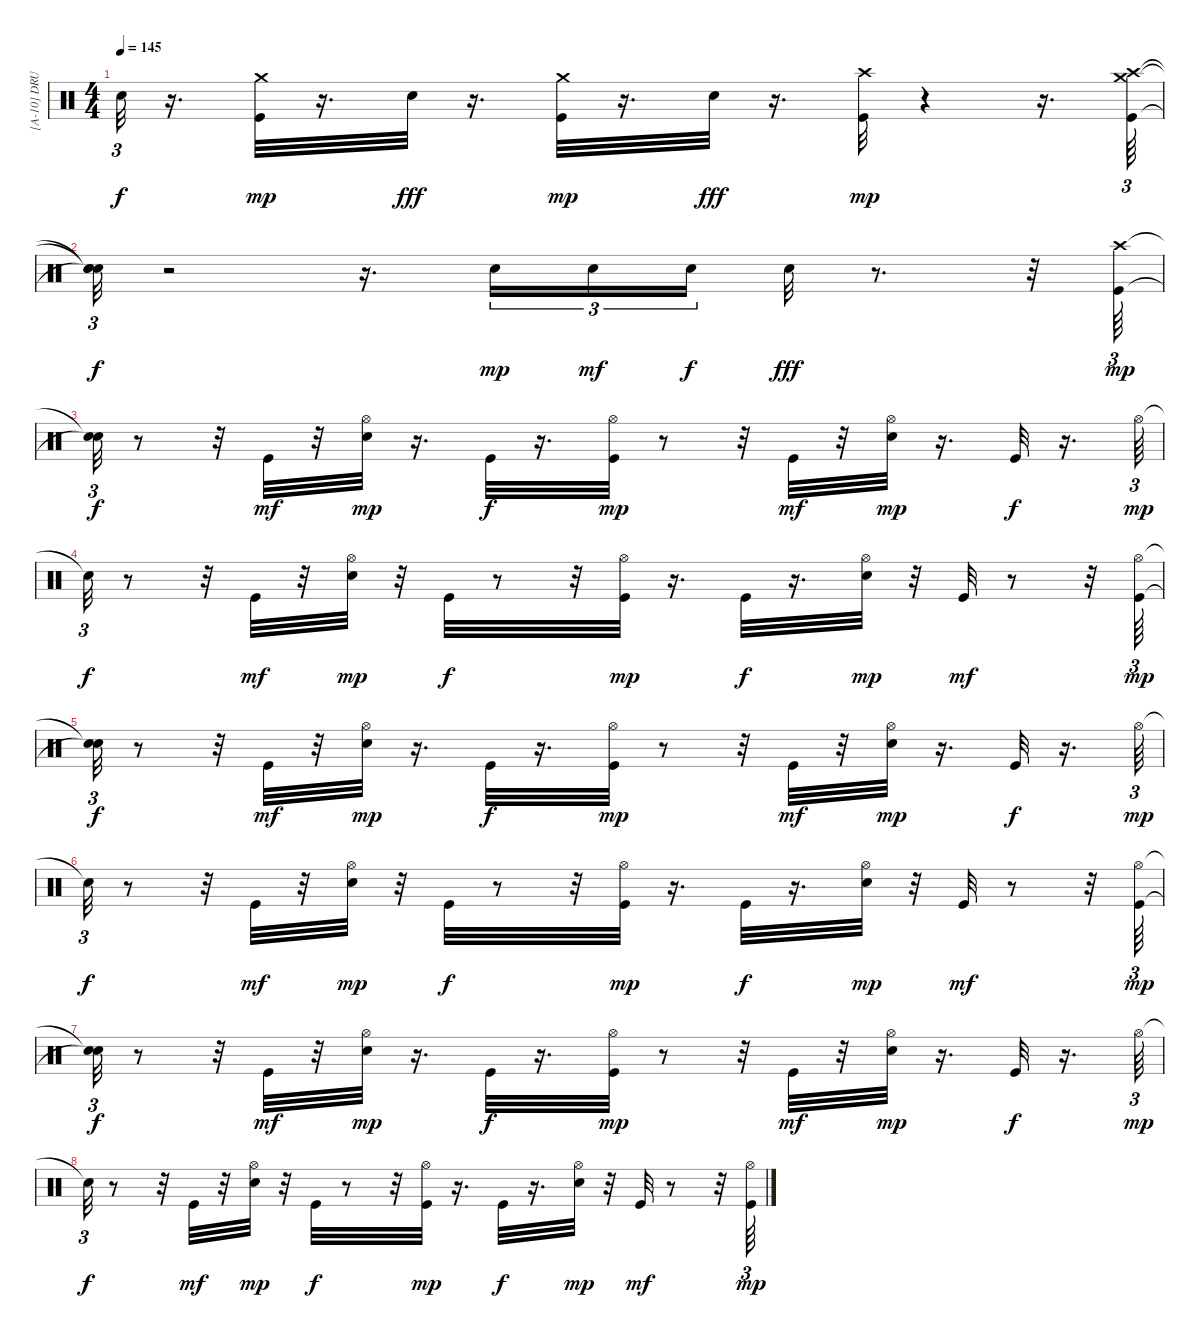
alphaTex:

\track ("[A-10] DRUMS" "[A-10] DRU") {instrument percussion}
\staff {score}
\articulation defaults
\ts (4 4)
\tempo 145
\clef neutral
\ks c "Snare (hit)"{t}.32{tu (3 2) dy f}
r.16{d} ("Kick (hit)" "Crash medium (hit)").32{dy mp} r.16{d} "Snare (hit) 2".32{dy fff} r.16{d} ("Kick (hit)" "Crash medium (hit)").32{dy mp} r.16{d} "Snare (hit) 2".32{dy fff} r.16{d} ("Kick (hit)" "Crash high (hit)").32{dy mp} r.4 r.16{d} ("Kick (hit)" "Crash medium (hit)" "Crash high (hit)").64{tu (3 2)} |
("Snare (hit)"{t} "Snare (hit)"{t} "Snare (hit)"{t}).32{tu (3 2) dy f} r.2 r.16{d} "Snare (hit) 2".16{tu (3 2) dy mp} "Snare (hit) 2".16{tu (3 2) dy mf} "Snare (hit) 2".16{tu (3 2) dy f beam splitsecondary} "Snare (hit) 2".32{dy fff} r.8{d} r.32 ("Kick (hit)" "Crash high (hit)").64{tu (3 2) dy mp} |
("Snare (hit)"{t} "Snare (hit)"{t}).32{tu (3 2) dy f} r.8 r.32 "Kick (hit)".32{dy mf} r.32 ("Snare (hit) 2" "Hi-Hat (open)").32{dy mp} r.16{d} "Kick (hit)".32{dy f} r.16{d} ("Kick (hit)" "Hi-Hat (open)").32{dy mp} r.8 r.32 "Kick (hit)".32{dy mf} r.32 ("Snare (hit) 2" "Hi-Hat (open)").32{dy mp} r.16{d} "Kick (hit)".32{dy f} r.16{d} "Hi-Hat (open)".64{tu (3 2) dy mp} |
"Snare (hit)"{t}.32{tu (3 2) dy f} r.8 r.32 "Kick (hit)".32{dy mf} r.32 ("Snare (hit) 2" "Hi-Hat (open)").32{dy mp} r.32 "Kick (hit)".32{dy f} r.8 r.32 ("Kick (hit)" "Hi-Hat (open)").32{dy mp} r.16{d} "Kick (hit)".32{dy f} r.16{d} ("Snare (hit) 2" "Hi-Hat (open)").32{dy mp} r.32 "Kick (hit)".32{dy mf} r.8 r.32 ("Kick (hit)" "Hi-Hat (open)").64{tu (3 2) dy mp} |
("Snare (hit)"{t} "Snare (hit)"{t}).32{tu (3 2) dy f} r.8 r.32 "Kick (hit)".32{dy mf} r.32 ("Snare (hit) 2" "Hi-Hat (open)").32{dy mp} r.16{d} "Kick (hit)".32{dy f} r.16{d} ("Kick (hit)" "Hi-Hat (open)").32{dy mp} r.8 r.32 "Kick (hit)".32{dy mf} r.32 ("Snare (hit) 2" "Hi-Hat (open)").32{dy mp} r.16{d} "Kick (hit)".32{dy f} r.16{d} "Hi-Hat (open)".64{tu (3 2) dy mp} |
"Snare (hit)"{t}.32{tu (3 2) dy f} r.8 r.32 "Kick (hit)".32{dy mf} r.32 ("Snare (hit) 2" "Hi-Hat (open)").32{dy mp} r.32 "Kick (hit)".32{dy f} r.8 r.32 ("Kick (hit)" "Hi-Hat (open)").32{dy mp} r.16{d} "Kick (hit)".32{dy f} r.16{d} ("Snare (hit) 2" "Hi-Hat (open)").32{dy mp} r.32 "Kick (hit)".32{dy mf} r.8 r.32 ("Kick (hit)" "Hi-Hat (open)").64{tu (3 2) dy mp} |
("Snare (hit)"{t} "Snare (hit)"{t}).32{tu (3 2) dy f} r.8 r.32 "Kick (hit)".32{dy mf} r.32 ("Snare (hit) 2" "Hi-Hat (open)").32{dy mp} r.16{d} "Kick (hit)".32{dy f} r.16{d} ("Kick (hit)" "Hi-Hat (open)").32{dy mp} r.8 r.32 "Kick (hit)".32{dy mf} r.32 ("Snare (hit) 2" "Hi-Hat (open)").32{dy mp} r.16{d} "Kick (hit)".32{dy f} r.16{d} "Hi-Hat (open)".64{tu (3 2) dy mp} |
"Snare (hit)"{t}.32{tu (3 2) dy f} r.8 r.32 "Kick (hit)".32{dy mf} r.32 ("Snare (hit) 2" "Hi-Hat (open)").32{dy mp} r.32 "Kick (hit)".32{dy f} r.8 r.32 ("Kick (hit)" "Hi-Hat (open)").32{dy mp} r.16{d} "Kick (hit)".32{dy f} r.16{d} ("Snare (hit) 2" "Hi-Hat (open)").32{dy mp} r.32 "Kick (hit)".32{dy mf} r.8 r.32 ("Kick (hit)" "Hi-Hat (open)").64{tu (3 2) dy mp}
